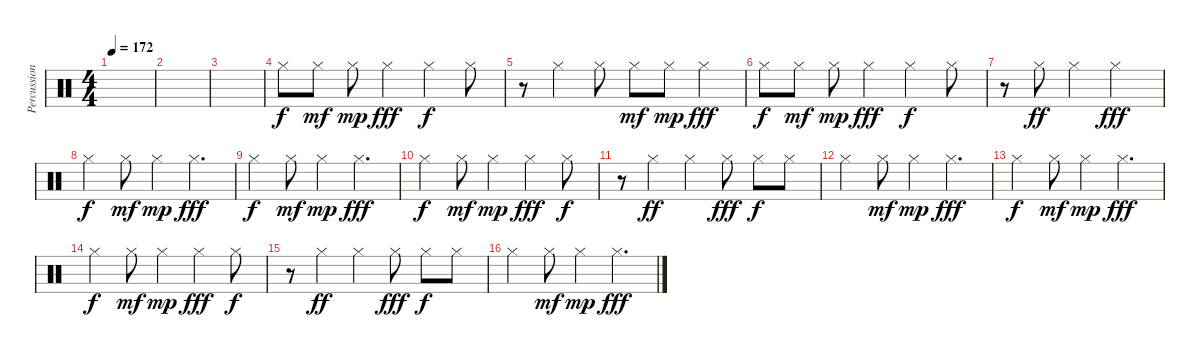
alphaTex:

\track ("Percussion" "Percussion") {solo instrument percussion}
\staff {score}
\articulation defaults
\ts (4 4)
\tempo 172
\clef neutral
\ks c
|
|
|
"Hi-Hat (closed)".8{dy f} "Hi-Hat (closed)".8{dy mf} "Hi-Hat (closed)".8{dy mp} "Hi-Hat (closed)".4{dy fff} "Hi-Hat (closed)".4{dy f} "Hi-Hat (closed)".8 |
r.8 "Hi-Hat (closed)".4 "Hi-Hat (closed)".8 "Hi-Hat (closed)".8{dy mf} "Hi-Hat (closed)".8{dy mp} "Hi-Hat (closed)".4{dy fff} |
"Hi-Hat (closed)".8{dy f} "Hi-Hat (closed)".8{dy mf} "Hi-Hat (closed)".8{dy mp} "Hi-Hat (closed)".4{dy fff} "Hi-Hat (closed)".4{dy f} "Hi-Hat (closed)".8 |
r.8 "Hi-Hat (closed)".8{dy ff} "Hi-Hat (closed)".4 "Hi-Hat (closed)".2{dy fff} |
"Hi-Hat (closed)".4{dy f} "Hi-Hat (closed)".8{dy mf} "Hi-Hat (closed)".4{dy mp} "Hi-Hat (closed)".4{d dy fff} |
"Hi-Hat (closed)".4{dy f} "Hi-Hat (closed)".8{dy mf} "Hi-Hat (closed)".4{dy mp} "Hi-Hat (closed)".4{d dy fff} |
"Hi-Hat (closed)".4{dy f} "Hi-Hat (closed)".8{dy mf} "Hi-Hat (closed)".4{dy mp} "Hi-Hat (closed)".4{dy fff} "Hi-Hat (closed)".8{dy f} |
r.8 "Hi-Hat (closed)".4{dy ff} "Hi-Hat (closed)".4 "Hi-Hat (closed)".8{dy fff} "Hi-Hat (closed)".8{dy f} "Hi-Hat (closed)".8 |
"Hi-Hat (closed)".4 "Hi-Hat (closed)".8{dy mf} "Hi-Hat (closed)".4{dy mp} "Hi-Hat (closed)".4{d dy fff} |
"Hi-Hat (closed)".4{dy f} "Hi-Hat (closed)".8{dy mf} "Hi-Hat (closed)".4{dy mp} "Hi-Hat (closed)".4{d dy fff} |
"Hi-Hat (closed)".4{dy f} "Hi-Hat (closed)".8{dy mf} "Hi-Hat (closed)".4{dy mp} "Hi-Hat (closed)".4{dy fff} "Hi-Hat (closed)".8{dy f} |
r.8 "Hi-Hat (closed)".4{dy ff} "Hi-Hat (closed)".4 "Hi-Hat (closed)".8{dy fff} "Hi-Hat (closed)".8{dy f} "Hi-Hat (closed)".8 |
"Hi-Hat (closed)".4 "Hi-Hat (closed)".8{dy mf} "Hi-Hat (closed)".4{dy mp} "Hi-Hat (closed)".4{d dy fff}
